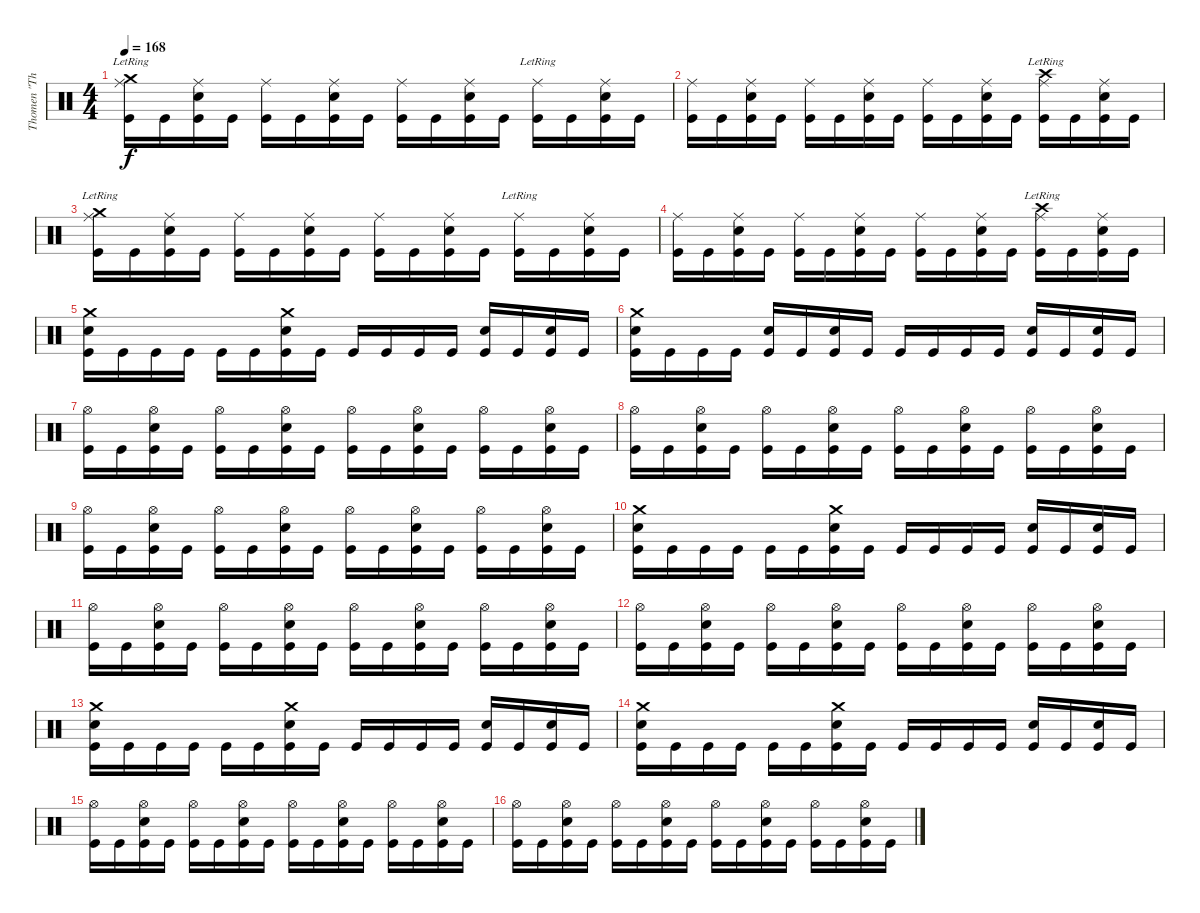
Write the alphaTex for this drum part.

\track ("Thomen \"The Omen\" Stauch" "Thomen \"Th") {instrument percussion}
\staff {score}
\articulation defaults
\ts (4 4)
\tempo 168
\clef neutral
\ks c
("Ride (middle)" "Crash medium (hit)"{lr} "Kick (hit)").16{dy f} "Kick (hit)".16 ("Ride (middle)" "Snare (hit) 2" "Kick (hit)").16 "Kick (hit)".16 ("Ride (middle)" "Kick (hit)").16 "Kick (hit)".16 ("Ride (middle)" "Snare (hit) 2" "Kick (hit)").16 "Kick (hit)".16 ("Ride (middle)" "Kick (hit)").16 "Kick (hit)".16 ("Ride (middle)" "Snare (hit) 2" "Kick (hit)").16 "Kick (hit)".16 ("Ride (middle)"{lr} "Kick (hit)").16 "Kick (hit)".16 ("Ride (middle)" "Snare (hit) 2" "Kick (hit)").16 "Kick (hit)".16 |
("Ride (middle)" "Kick (hit)").16 "Kick (hit)".16 ("Ride (middle)" "Snare (hit) 2" "Kick (hit)").16 "Kick (hit)".16 ("Ride (middle)" "Kick (hit)").16 "Kick (hit)".16 ("Ride (middle)" "Snare (hit) 2" "Kick (hit)").16 "Kick (hit)".16 ("Ride (middle)" "Kick (hit)").16 "Kick (hit)".16 ("Ride (middle)" "Snare (hit) 2" "Kick (hit)").16 "Kick (hit)".16 ("Ride (middle)"{lr} "Crash high (hit)"{lr} "Kick (hit)").16 "Kick (hit)".16 ("Ride (middle)" "Snare (hit) 2" "Kick (hit)").16 "Kick (hit)".16 |
("Ride (middle)" "Crash medium (hit)"{lr} "Kick (hit)").16 "Kick (hit)".16 ("Ride (middle)" "Snare (hit) 2" "Kick (hit)").16 "Kick (hit)".16 ("Ride (middle)" "Kick (hit)").16 "Kick (hit)".16 ("Ride (middle)" "Snare (hit) 2" "Kick (hit)").16 "Kick (hit)".16 ("Ride (middle)" "Kick (hit)").16 "Kick (hit)".16 ("Ride (middle)" "Snare (hit) 2" "Kick (hit)").16 "Kick (hit)".16 ("Ride (middle)"{lr} "Kick (hit)").16 "Kick (hit)".16 ("Ride (middle)" "Snare (hit) 2" "Kick (hit)").16 "Kick (hit)".16 |
("Ride (middle)" "Kick (hit)").16 "Kick (hit)".16 ("Ride (middle)" "Snare (hit) 2" "Kick (hit)").16 "Kick (hit)".16 ("Ride (middle)" "Kick (hit)").16 "Kick (hit)".16 ("Ride (middle)" "Snare (hit) 2" "Kick (hit)").16 "Kick (hit)".16 ("Ride (middle)" "Kick (hit)").16 "Kick (hit)".16 ("Ride (middle)" "Snare (hit) 2" "Kick (hit)").16 "Kick (hit)".16 ("Ride (middle)"{lr} "Crash high (hit)"{lr} "Kick (hit)").16 "Kick (hit)".16 ("Ride (middle)" "Snare (hit) 2" "Kick (hit)").16 "Kick (hit)".16 |
("Crash medium (hit)" "Snare (hit) 2" "Kick (hit)").16 "Kick (hit)".16 "Kick (hit)".16 "Kick (hit)".16 "Kick (hit)".16 "Kick (hit)".16 ("Crash medium (hit)" "Snare (hit) 2" "Kick (hit)").16 "Kick (hit)".16 "Kick (hit)".16 "Kick (hit)".16 "Kick (hit)".16 "Kick (hit)".16 ("Snare (hit) 2" "Kick (hit)").16 "Kick (hit)".16 ("Snare (hit) 2" "Kick (hit)").16 "Kick (hit)".16 |
("Crash medium (hit)" "Snare (hit) 2" "Kick (hit)").16 "Kick (hit)".16 "Kick (hit)".16 "Kick (hit)".16 ("Snare (hit) 2" "Kick (hit)").16 "Kick (hit)".16 ("Snare (hit) 2" "Kick (hit)").16 "Kick (hit)".16 "Kick (hit)".16 "Kick (hit)".16 "Kick (hit)".16 "Kick (hit)".16 ("Snare (hit) 2" "Kick (hit)").16 "Kick (hit)".16 ("Snare (hit) 2" "Kick (hit)").16 "Kick (hit)".16 |
("Hi-Hat (open)" "Kick (hit)").16 "Kick (hit)".16 ("Hi-Hat (open)" "Snare (hit) 2" "Kick (hit)").16 "Kick (hit)".16 ("Hi-Hat (open)" "Kick (hit)").16 "Kick (hit)".16 ("Hi-Hat (open)" "Snare (hit) 2" "Kick (hit)").16 "Kick (hit)".16 ("Hi-Hat (open)" "Kick (hit)").16 "Kick (hit)".16 ("Hi-Hat (open)" "Snare (hit) 2" "Kick (hit)").16 "Kick (hit)".16 ("Hi-Hat (open)" "Kick (hit)").16 "Kick (hit)".16 ("Hi-Hat (open)" "Snare (hit) 2" "Kick (hit)").16 "Kick (hit)".16 |
("Hi-Hat (open)" "Kick (hit)").16 "Kick (hit)".16 ("Hi-Hat (open)" "Snare (hit) 2" "Kick (hit)").16 "Kick (hit)".16 ("Hi-Hat (open)" "Kick (hit)").16 "Kick (hit)".16 ("Hi-Hat (open)" "Snare (hit) 2" "Kick (hit)").16 "Kick (hit)".16 ("Hi-Hat (open)" "Kick (hit)").16 "Kick (hit)".16 ("Hi-Hat (open)" "Snare (hit) 2" "Kick (hit)").16 "Kick (hit)".16 ("Hi-Hat (open)" "Kick (hit)").16 "Kick (hit)".16 ("Hi-Hat (open)" "Snare (hit) 2" "Kick (hit)").16 "Kick (hit)".16 |
("Hi-Hat (open)" "Kick (hit)").16 "Kick (hit)".16 ("Hi-Hat (open)" "Snare (hit) 2" "Kick (hit)").16 "Kick (hit)".16 ("Hi-Hat (open)" "Kick (hit)").16 "Kick (hit)".16 ("Hi-Hat (open)" "Snare (hit) 2" "Kick (hit)").16 "Kick (hit)".16 ("Hi-Hat (open)" "Kick (hit)").16 "Kick (hit)".16 ("Hi-Hat (open)" "Snare (hit) 2" "Kick (hit)").16 "Kick (hit)".16 ("Hi-Hat (open)" "Kick (hit)").16 "Kick (hit)".16 ("Hi-Hat (open)" "Snare (hit) 2" "Kick (hit)").16 "Kick (hit)".16 |
("Crash medium (hit)" "Snare (hit) 2" "Kick (hit)").16 "Kick (hit)".16 "Kick (hit)".16 "Kick (hit)".16 "Kick (hit)".16 "Kick (hit)".16 ("Crash medium (hit)" "Snare (hit) 2" "Kick (hit)").16 "Kick (hit)".16 "Kick (hit)".16 "Kick (hit)".16 "Kick (hit)".16 "Kick (hit)".16 ("Snare (hit) 2" "Kick (hit)").16 "Kick (hit)".16 ("Snare (hit) 2" "Kick (hit)").16 "Kick (hit)".16 |
("Hi-Hat (open)" "Kick (hit)").16 "Kick (hit)".16 ("Hi-Hat (open)" "Snare (hit) 2" "Kick (hit)").16 "Kick (hit)".16 ("Hi-Hat (open)" "Kick (hit)").16 "Kick (hit)".16 ("Hi-Hat (open)" "Snare (hit) 2" "Kick (hit)").16 "Kick (hit)".16 ("Hi-Hat (open)" "Kick (hit)").16 "Kick (hit)".16 ("Hi-Hat (open)" "Snare (hit) 2" "Kick (hit)").16 "Kick (hit)".16 ("Hi-Hat (open)" "Kick (hit)").16 "Kick (hit)".16 ("Hi-Hat (open)" "Snare (hit) 2" "Kick (hit)").16 "Kick (hit)".16 |
("Hi-Hat (open)" "Kick (hit)").16 "Kick (hit)".16 ("Hi-Hat (open)" "Snare (hit) 2" "Kick (hit)").16 "Kick (hit)".16 ("Hi-Hat (open)" "Kick (hit)").16 "Kick (hit)".16 ("Hi-Hat (open)" "Snare (hit) 2" "Kick (hit)").16 "Kick (hit)".16 ("Hi-Hat (open)" "Kick (hit)").16 "Kick (hit)".16 ("Hi-Hat (open)" "Snare (hit) 2" "Kick (hit)").16 "Kick (hit)".16 ("Hi-Hat (open)" "Kick (hit)").16 "Kick (hit)".16 ("Hi-Hat (open)" "Snare (hit) 2" "Kick (hit)").16 "Kick (hit)".16 |
("Crash medium (hit)" "Snare (hit) 2" "Kick (hit)").16 "Kick (hit)".16 "Kick (hit)".16 "Kick (hit)".16 "Kick (hit)".16 "Kick (hit)".16 ("Crash medium (hit)" "Snare (hit) 2" "Kick (hit)").16 "Kick (hit)".16 "Kick (hit)".16 "Kick (hit)".16 "Kick (hit)".16 "Kick (hit)".16 ("Snare (hit) 2" "Kick (hit)").16 "Kick (hit)".16 ("Snare (hit) 2" "Kick (hit)").16 "Kick (hit)".16 |
("Crash medium (hit)" "Snare (hit) 2" "Kick (hit)").16 "Kick (hit)".16 "Kick (hit)".16 "Kick (hit)".16 "Kick (hit)".16 "Kick (hit)".16 ("Crash medium (hit)" "Snare (hit) 2" "Kick (hit)").16 "Kick (hit)".16 "Kick (hit)".16 "Kick (hit)".16 "Kick (hit)".16 "Kick (hit)".16 ("Snare (hit) 2" "Kick (hit)").16 "Kick (hit)".16 ("Snare (hit) 2" "Kick (hit)").16 "Kick (hit)".16 |
("Hi-Hat (open)" "Kick (hit)").16 "Kick (hit)".16 ("Hi-Hat (open)" "Snare (hit) 2" "Kick (hit)").16 "Kick (hit)".16 ("Hi-Hat (open)" "Kick (hit)").16 "Kick (hit)".16 ("Hi-Hat (open)" "Snare (hit) 2" "Kick (hit)").16 "Kick (hit)".16 ("Hi-Hat (open)" "Kick (hit)").16 "Kick (hit)".16 ("Hi-Hat (open)" "Snare (hit) 2" "Kick (hit)").16 "Kick (hit)".16 ("Hi-Hat (open)" "Kick (hit)").16 "Kick (hit)".16 ("Hi-Hat (open)" "Snare (hit) 2" "Kick (hit)").16 "Kick (hit)".16 |
("Hi-Hat (open)" "Kick (hit)").16 "Kick (hit)".16 ("Hi-Hat (open)" "Snare (hit) 2" "Kick (hit)").16 "Kick (hit)".16 ("Hi-Hat (open)" "Kick (hit)").16 "Kick (hit)".16 ("Hi-Hat (open)" "Snare (hit) 2" "Kick (hit)").16 "Kick (hit)".16 ("Hi-Hat (open)" "Kick (hit)").16 "Kick (hit)".16 ("Hi-Hat (open)" "Snare (hit) 2" "Kick (hit)").16 "Kick (hit)".16 ("Hi-Hat (open)" "Kick (hit)").16 "Kick (hit)".16 ("Hi-Hat (open)" "Snare (hit) 2" "Kick (hit)").16 "Kick (hit)".16
